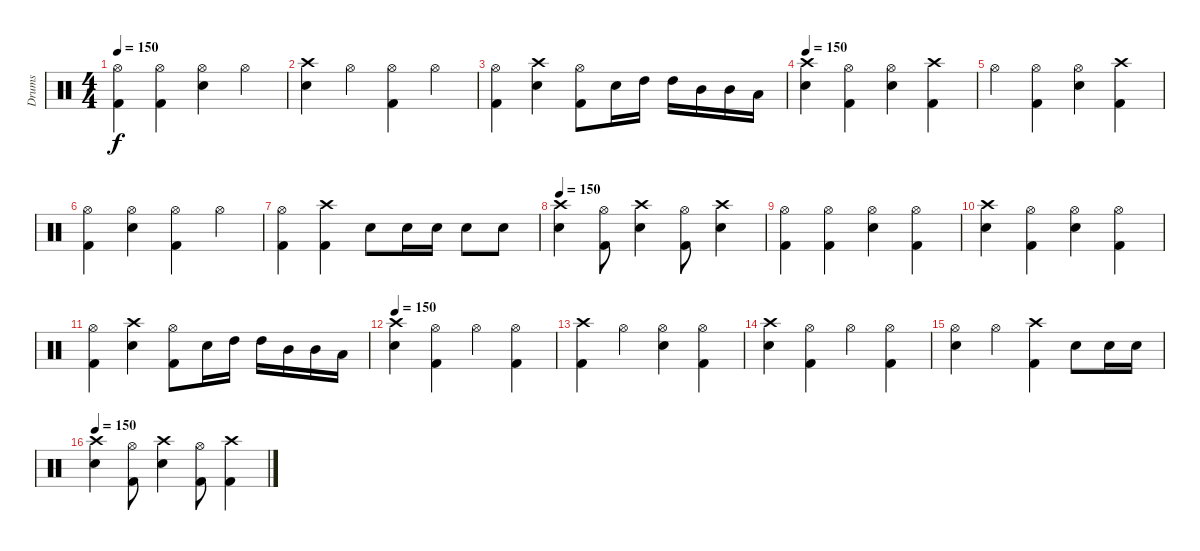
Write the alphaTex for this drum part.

\track ("Drums" "Drums") {instrument percussion}
\staff {score}
\articulation defaults
\ts (4 4)
\tempo 150
\clef neutral
\ks c
("Hi-Hat (open)" "Kick (hit) 2").4{dy f} ("Hi-Hat (open)" "Kick (hit) 2").4 ("Hi-Hat (open)" "Electric Snare (hit)").4 "Hi-Hat (open)".4 |
("Crash high (hit)" "Electric Snare (hit)").4 "Hi-Hat (open)".4 ("Hi-Hat (open)" "Kick (hit) 2").4 "Hi-Hat (open)".4 |
("Hi-Hat (open)" "Kick (hit) 2").4 ("Crash high (hit)" "Electric Snare (hit)").4 ("Hi-Hat (open)" "Kick (hit) 2").8 "Electric Snare (hit)".16 "High Tom (hit)".16 "High Tom (hit)".16 "Mid Tom (hit)".16 "Mid Tom (hit)".16 "Low Tom (hit)".16 |
\tempo 150
("Crash high (hit)" "Electric Snare (hit)").4 ("Hi-Hat (open)" "Kick (hit) 2").4 ("Hi-Hat (open)" "Electric Snare (hit)").4 ("Crash high (hit)" "Kick (hit) 2").4 |
"Hi-Hat (open)".4 ("Hi-Hat (open)" "Kick (hit) 2").4 ("Hi-Hat (open)" "Electric Snare (hit)").4 ("Crash high (hit)" "Kick (hit) 2").4 |
("Hi-Hat (open)" "Kick (hit) 2").4 ("Hi-Hat (open)" "Electric Snare (hit)").4 ("Hi-Hat (open)" "Kick (hit) 2").4 "Hi-Hat (open)".4 |
("Hi-Hat (open)" "Kick (hit) 2").4 ("Crash high (hit)" "Kick (hit) 2").4 "Electric Snare (hit)".8 "Electric Snare (hit)".16 "Electric Snare (hit)".16 "Electric Snare (hit)".8 "Electric Snare (hit)".8 |
\tempo 150
("Crash high (hit)" "Electric Snare (hit)").4 ("Hi-Hat (open)" "Kick (hit) 2").8 ("Crash high (hit)" "Electric Snare (hit)").4 ("Hi-Hat (open)" "Kick (hit) 2").8 ("Crash high (hit)" "Electric Snare (hit)").4 |
("Hi-Hat (open)" "Kick (hit) 2").4 ("Hi-Hat (open)" "Kick (hit) 2").4 ("Hi-Hat (open)" "Electric Snare (hit)").4 ("Hi-Hat (open)" "Kick (hit) 2").4 |
("Crash high (hit)" "Electric Snare (hit)").4 ("Hi-Hat (open)" "Kick (hit) 2").4 ("Hi-Hat (open)" "Electric Snare (hit)").4 ("Hi-Hat (open)" "Kick (hit) 2").4 |
("Hi-Hat (open)" "Kick (hit) 2").4 ("Crash high (hit)" "Electric Snare (hit)").4 ("Hi-Hat (open)" "Kick (hit) 2").8 "Electric Snare (hit)".16 "High Tom (hit)".16 "High Tom (hit)".16 "Mid Tom (hit)".16 "Mid Tom (hit)".16 "Low Tom (hit)".16 |
\tempo 150
("Crash high (hit)" "Electric Snare (hit)").4 ("Hi-Hat (open)" "Kick (hit) 2").4 "Hi-Hat (open)".4 ("Hi-Hat (open)" "Kick (hit) 2").4 |
("Crash high (hit)" "Kick (hit) 2").4 "Hi-Hat (open)".4 ("Hi-Hat (open)" "Electric Snare (hit)").4 ("Hi-Hat (open)" "Kick (hit) 2").4 |
("Crash high (hit)" "Electric Snare (hit)").4 ("Hi-Hat (open)" "Kick (hit) 2").4 "Hi-Hat (open)".4 ("Hi-Hat (open)" "Kick (hit) 2").4 |
("Hi-Hat (open)" "Electric Snare (hit)").4 "Hi-Hat (open)".4 ("Crash high (hit)" "Kick (hit) 2").4 "Electric Snare (hit)".8 "Electric Snare (hit)".16 "Electric Snare (hit)".16 |
\tempo 150
("Crash high (hit)" "Electric Snare (hit)").4 ("Kick (hit) 2" "Hi-Hat (open)").8 ("Crash high (hit)" "Electric Snare (hit)").4 ("Hi-Hat (open)" "Kick (hit) 2").8 ("Crash high (hit)" "Kick (hit) 2").4
